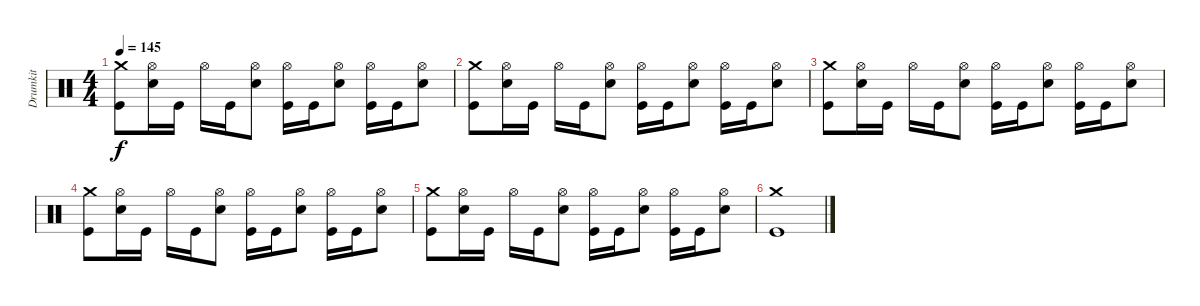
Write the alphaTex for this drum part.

\track ("Drumkit" "Drumkit") {instrument percussion}
\staff {score}
\articulation defaults
\ts (4 4)
\tempo 145
\clef neutral
\ks c
("Kick (hit)" "Crash medium (hit)").8{dy f} ("Snare (hit) 2" "Hi-Hat (open)").16 "Kick (hit)".16 "Hi-Hat (open)".16 "Kick (hit)".16 ("Snare (hit) 2" "Hi-Hat (open)").8 ("Hi-Hat (open)" "Kick (hit)").16 "Kick (hit)".16 ("Snare (hit) 2" "Hi-Hat (open)").8 ("Hi-Hat (open)" "Kick (hit)").16 "Kick (hit)".16 ("Snare (hit) 2" "Hi-Hat (open)").8 |
("Kick (hit)" "Crash medium (hit)").8 ("Snare (hit) 2" "Hi-Hat (open)").16 "Kick (hit)".16 "Hi-Hat (open)".16 "Kick (hit)".16 ("Snare (hit) 2" "Hi-Hat (open)").8 ("Hi-Hat (open)" "Kick (hit)").16 "Kick (hit)".16 ("Snare (hit) 2" "Hi-Hat (open)").8 ("Hi-Hat (open)" "Kick (hit)").16 "Kick (hit)".16 ("Snare (hit) 2" "Hi-Hat (open)").8 |
("Kick (hit)" "Crash medium (hit)").8 ("Snare (hit) 2" "Hi-Hat (open)").16 "Kick (hit)".16 "Hi-Hat (open)".16 "Kick (hit)".16 ("Snare (hit) 2" "Hi-Hat (open)").8 ("Hi-Hat (open)" "Kick (hit)").16 "Kick (hit)".16 ("Snare (hit) 2" "Hi-Hat (open)").8 ("Hi-Hat (open)" "Kick (hit)").16 "Kick (hit)".16 ("Snare (hit) 2" "Hi-Hat (open)").8 |
("Kick (hit)" "Crash medium (hit)").8 ("Snare (hit) 2" "Hi-Hat (open)").16 "Kick (hit)".16 "Hi-Hat (open)".16 "Kick (hit)".16 ("Snare (hit) 2" "Hi-Hat (open)").8 ("Hi-Hat (open)" "Kick (hit)").16 "Kick (hit)".16 ("Snare (hit) 2" "Hi-Hat (open)").8 ("Hi-Hat (open)" "Kick (hit)").16 "Kick (hit)".16 ("Snare (hit) 2" "Hi-Hat (open)").8 |
("Kick (hit)" "Crash medium (hit)").8 ("Snare (hit) 2" "Hi-Hat (open)").16 "Kick (hit)".16 "Hi-Hat (open)".16 "Kick (hit)".16 ("Snare (hit) 2" "Hi-Hat (open)").8 ("Hi-Hat (open)" "Kick (hit)").16 "Kick (hit)".16 ("Snare (hit) 2" "Hi-Hat (open)").8 ("Hi-Hat (open)" "Kick (hit)").16 "Kick (hit)".16 ("Snare (hit) 2" "Hi-Hat (open)").8 |
("Kick (hit)" "Crash medium (hit)").1
